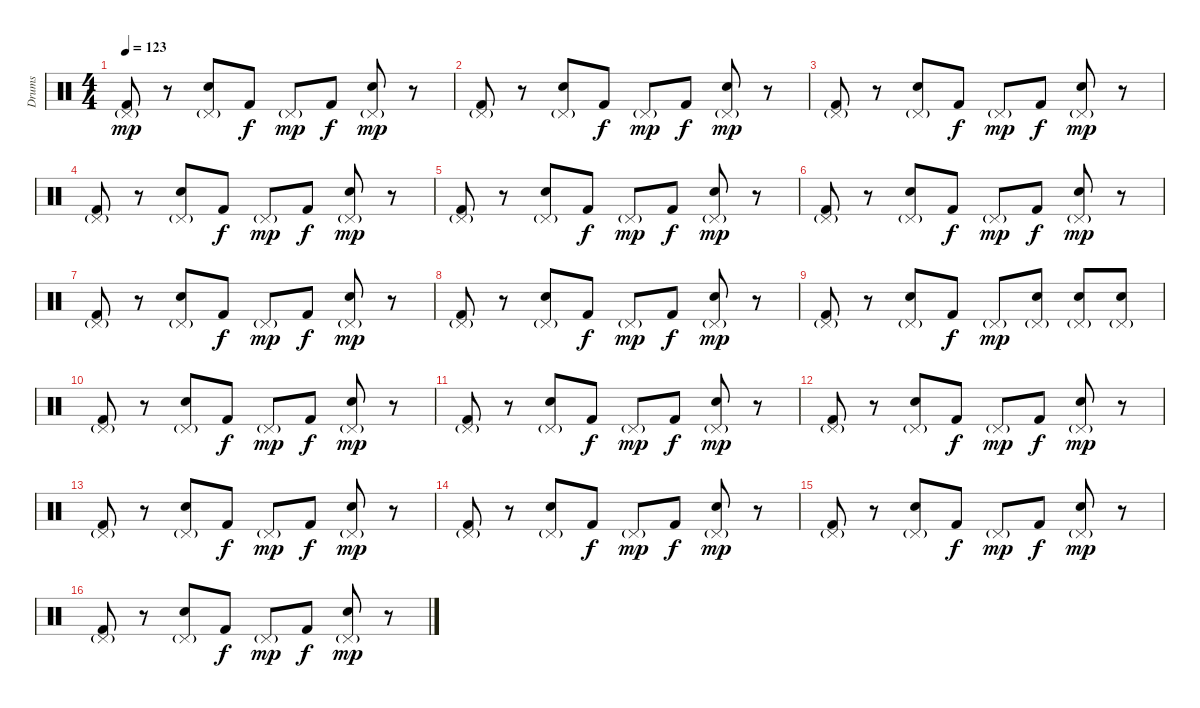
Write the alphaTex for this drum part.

\track ("Drums" "Drums") {instrument percussion}
\staff {score}
\articulation defaults
\ts (4 4)
\tempo 123
\clef neutral
\ks c
("Pedal Hi-Hat (hit)"{g} "Kick (hit) 2").8{dy mp} r.8 ("Pedal Hi-Hat (hit)"{g} "Snare (hit) 2").8 "Kick (hit) 2".8{dy f} "Pedal Hi-Hat (hit)"{g}.8{dy mp} "Kick (hit) 2".8{dy f} ("Pedal Hi-Hat (hit)"{g} "Snare (hit) 2").8{dy mp} r.8 |
("Pedal Hi-Hat (hit)"{g} "Kick (hit) 2").8 r.8 ("Pedal Hi-Hat (hit)"{g} "Snare (hit) 2").8 "Kick (hit) 2".8{dy f} "Pedal Hi-Hat (hit)"{g}.8{dy mp} "Kick (hit) 2".8{dy f} ("Pedal Hi-Hat (hit)"{g} "Snare (hit) 2").8{dy mp} r.8 |
("Pedal Hi-Hat (hit)"{g} "Kick (hit) 2").8 r.8 ("Pedal Hi-Hat (hit)"{g} "Snare (hit) 2").8 "Kick (hit) 2".8{dy f} "Pedal Hi-Hat (hit)"{g}.8{dy mp} "Kick (hit) 2".8{dy f} ("Pedal Hi-Hat (hit)"{g} "Snare (hit) 2").8{dy mp} r.8 |
("Pedal Hi-Hat (hit)"{g} "Kick (hit) 2").8 r.8 ("Pedal Hi-Hat (hit)"{g} "Snare (hit) 2").8 "Kick (hit) 2".8{dy f} "Pedal Hi-Hat (hit)"{g}.8{dy mp} "Kick (hit) 2".8{dy f} ("Pedal Hi-Hat (hit)"{g} "Snare (hit) 2").8{dy mp} r.8 |
("Pedal Hi-Hat (hit)"{g} "Kick (hit) 2").8 r.8 ("Pedal Hi-Hat (hit)"{g} "Snare (hit) 2").8 "Kick (hit) 2".8{dy f} "Pedal Hi-Hat (hit)"{g}.8{dy mp} "Kick (hit) 2".8{dy f} ("Pedal Hi-Hat (hit)"{g} "Snare (hit) 2").8{dy mp} r.8 |
("Pedal Hi-Hat (hit)"{g} "Kick (hit) 2").8 r.8 ("Pedal Hi-Hat (hit)"{g} "Snare (hit) 2").8 "Kick (hit) 2".8{dy f} "Pedal Hi-Hat (hit)"{g}.8{dy mp} "Kick (hit) 2".8{dy f} ("Pedal Hi-Hat (hit)"{g} "Snare (hit) 2").8{dy mp} r.8 |
("Pedal Hi-Hat (hit)"{g} "Kick (hit) 2").8 r.8 ("Pedal Hi-Hat (hit)"{g} "Snare (hit) 2").8 "Kick (hit) 2".8{dy f} "Pedal Hi-Hat (hit)"{g}.8{dy mp} "Kick (hit) 2".8{dy f} ("Pedal Hi-Hat (hit)"{g} "Snare (hit) 2").8{dy mp} r.8 |
("Pedal Hi-Hat (hit)"{g} "Kick (hit) 2").8 r.8 ("Pedal Hi-Hat (hit)"{g} "Snare (hit) 2").8 "Kick (hit) 2".8{dy f} "Pedal Hi-Hat (hit)"{g}.8{dy mp} "Kick (hit) 2".8{dy f} ("Pedal Hi-Hat (hit)"{g} "Snare (hit) 2").8{dy mp} r.8 |
("Pedal Hi-Hat (hit)"{g} "Kick (hit) 2").8 r.8 ("Pedal Hi-Hat (hit)"{g} "Snare (hit) 2").8 "Kick (hit) 2".8{dy f} "Pedal Hi-Hat (hit)"{g}.8{dy mp} ("Pedal Hi-Hat (hit)"{g} "Snare (hit) 2").8 ("Pedal Hi-Hat (hit)"{g} "Snare (hit) 2").8 ("Pedal Hi-Hat (hit)"{g} "Snare (hit) 2").8 |
("Pedal Hi-Hat (hit)"{g} "Kick (hit) 2").8 r.8 ("Pedal Hi-Hat (hit)"{g} "Snare (hit) 2").8 "Kick (hit) 2".8{dy f} "Pedal Hi-Hat (hit)"{g}.8{dy mp} "Kick (hit) 2".8{dy f} ("Pedal Hi-Hat (hit)"{g} "Snare (hit) 2").8{dy mp} r.8 |
("Pedal Hi-Hat (hit)"{g} "Kick (hit) 2").8 r.8 ("Pedal Hi-Hat (hit)"{g} "Snare (hit) 2").8 "Kick (hit) 2".8{dy f} "Pedal Hi-Hat (hit)"{g}.8{dy mp} "Kick (hit) 2".8{dy f} ("Pedal Hi-Hat (hit)"{g} "Snare (hit) 2").8{dy mp} r.8 |
("Pedal Hi-Hat (hit)"{g} "Kick (hit) 2").8 r.8 ("Pedal Hi-Hat (hit)"{g} "Snare (hit) 2").8 "Kick (hit) 2".8{dy f} "Pedal Hi-Hat (hit)"{g}.8{dy mp} "Kick (hit) 2".8{dy f} ("Pedal Hi-Hat (hit)"{g} "Snare (hit) 2").8{dy mp} r.8 |
("Pedal Hi-Hat (hit)"{g} "Kick (hit) 2").8 r.8 ("Pedal Hi-Hat (hit)"{g} "Snare (hit) 2").8 "Kick (hit) 2".8{dy f} "Pedal Hi-Hat (hit)"{g}.8{dy mp} "Kick (hit) 2".8{dy f} ("Pedal Hi-Hat (hit)"{g} "Snare (hit) 2").8{dy mp} r.8 |
("Pedal Hi-Hat (hit)"{g} "Kick (hit) 2").8 r.8 ("Pedal Hi-Hat (hit)"{g} "Snare (hit) 2").8 "Kick (hit) 2".8{dy f} "Pedal Hi-Hat (hit)"{g}.8{dy mp} "Kick (hit) 2".8{dy f} ("Pedal Hi-Hat (hit)"{g} "Snare (hit) 2").8{dy mp} r.8 |
("Pedal Hi-Hat (hit)"{g} "Kick (hit) 2").8 r.8 ("Pedal Hi-Hat (hit)"{g} "Snare (hit) 2").8 "Kick (hit) 2".8{dy f} "Pedal Hi-Hat (hit)"{g}.8{dy mp} "Kick (hit) 2".8{dy f} ("Pedal Hi-Hat (hit)"{g} "Snare (hit) 2").8{dy mp} r.8 |
("Pedal Hi-Hat (hit)"{g} "Kick (hit) 2").8 r.8 ("Pedal Hi-Hat (hit)"{g} "Snare (hit) 2").8 "Kick (hit) 2".8{dy f} "Pedal Hi-Hat (hit)"{g}.8{dy mp} "Kick (hit) 2".8{dy f} ("Pedal Hi-Hat (hit)"{g} "Snare (hit) 2").8{dy mp} r.8
